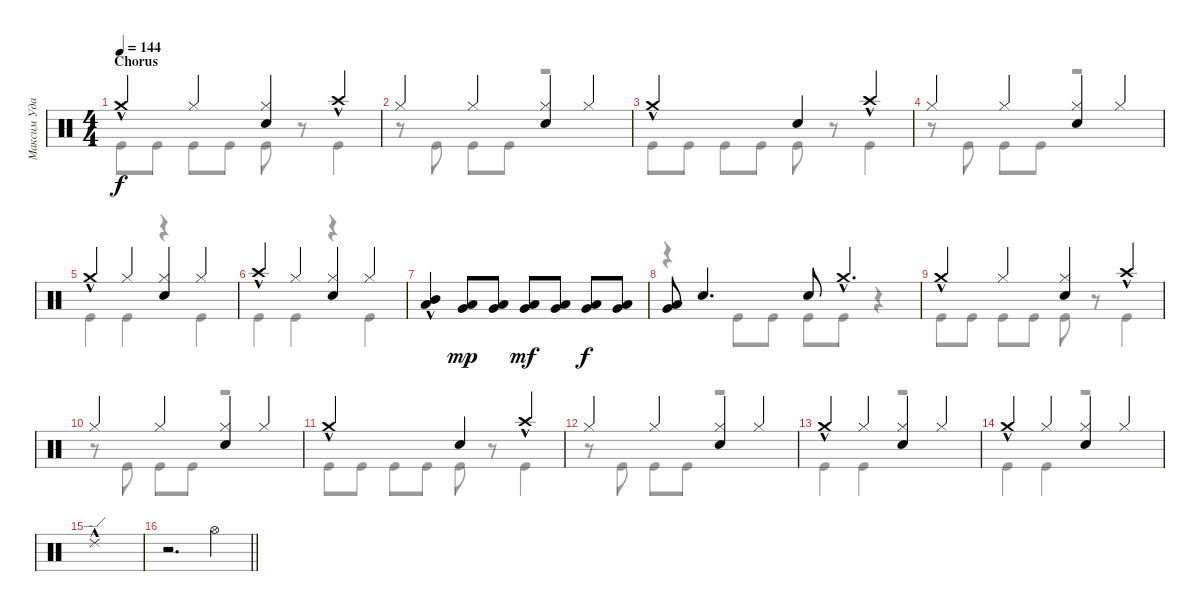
\track ("Максим Удалов" "Максим Уда") {instrument percussion}
\staff {score}
\articulation defaults
\voice
\ts (4 4)
\section ("" "Chorus")
\tempo 144
\clef neutral
\ks c "Crash medium (hit)"{hac}.4{dy f} "Hi-Hat (closed)".4
("Snare (hit) 2" "Hi-Hat (closed)").4 "Crash high (hit)"{hac}.4 |
"Hi-Hat (closed)".4 "Hi-Hat (closed)".4 ("Hi-Hat (closed)" "Snare (hit) 2").4 "Hi-Hat (closed)".4 |
"Crash medium (hit)"{hac}.2 "Snare (hit) 2".4 "Crash high (hit)"{hac}.4 |
"Hi-Hat (closed)".4 "Hi-Hat (closed)".4 ("Hi-Hat (closed)" "Snare (hit) 2").4 "Hi-Hat (closed)".4 |
"Crash medium (hit)"{hac}.4 "Hi-Hat (closed)".4 ("Hi-Hat (closed)" "Snare (hit) 2").4 "Hi-Hat (closed)".4 |
"Crash high (hit)"{hac}.4 "Hi-Hat (closed)".4 ("Hi-Hat (closed)" "Snare (hit) 2").4 "Hi-Hat (closed)".4 |
("Low Tom (hit)"{hac} "Mid Tom (hit)"{hac}).4 ("Low Tom (hit)" "Very Low Tom (hit)").8{dy mp} ("Low Tom (hit)" "Very Low Tom (hit)").8 ("Low Tom (hit)" "Very Low Tom (hit)").8{dy mf} ("Low Tom (hit)" "Very Low Tom (hit)").8 ("Low Tom (hit)" "Very Low Tom (hit)").8{dy f} ("Low Tom (hit)" "Very Low Tom (hit)").8 |
("Low Tom (hit)" "Very Low Tom (hit)").8 "Snare (hit) 2".4{d} "Snare (hit) 2".8 "Crash medium (hit)"{hac}.4{d} |
"Crash medium (hit)"{hac}.4 "Hi-Hat (closed)".4 ("Snare (hit) 2" "Hi-Hat (closed)").4 "Crash high (hit)"{hac}.4 |
"Hi-Hat (closed)".4 "Hi-Hat (closed)".4 ("Hi-Hat (closed)" "Snare (hit) 2").4 "Hi-Hat (closed)".4 |
"Crash medium (hit)"{hac}.2 "Snare (hit) 2".4 "Crash high (hit)"{hac}.4 |
"Hi-Hat (closed)".4 "Hi-Hat (closed)".4 ("Hi-Hat (closed)" "Snare (hit) 2").4 "Hi-Hat (closed)".4 |
"Crash medium (hit)"{hac}.4 "Hi-Hat (closed)".4 ("Hi-Hat (closed)" "Snare (hit) 2").4 "Hi-Hat (closed)".4 |
"Crash medium (hit)"{hac}.4 "Hi-Hat (closed)".4 ("Hi-Hat (closed)" "Snare (hit) 2").4 "Hi-Hat (closed)".4 |
"Ride (edge) 2"{hac}.1 |
\barLineRight lightlight
r.2{d} "Hi-Hat (open)".4
\voice
\clef neutral
\ottava regular
\simile none
\ks c "Kick (hit)".8{dy f} "Kick (hit)".8 "Kick (hit)".8 "Kick (hit)".8 "Kick (hit)".8
r.8 "Kick (hit)".4 |
r.8 "Kick (hit)".8 "Kick (hit)".8 "Kick (hit)".8 r.2 |
"Kick (hit)".8 "Kick (hit)".8 "Kick (hit)".8 "Kick (hit)".8 "Kick (hit)".8 r.8 "Kick (hit)".4 |
r.8 "Kick (hit)".8 "Kick (hit)".8 "Kick (hit)".8 r.2 |
"Kick (hit)".4 "Kick (hit)".4 r.4 "Kick (hit)".4 |
"Kick (hit)".4 "Kick (hit)".4 r.4 "Kick (hit)".4 |
|
r.4 "Kick (hit)".8 "Kick (hit)".8 "Kick (hit)".8 "Kick (hit)".8 r.4 |
"Kick (hit)".8 "Kick (hit)".8 "Kick (hit)".8 "Kick (hit)".8 "Kick (hit)".8 r.8 "Kick (hit)".4 |
r.8 "Kick (hit)".8 "Kick (hit)".8 "Kick (hit)".8 r.2 |
"Kick (hit)".8 "Kick (hit)".8 "Kick (hit)".8 "Kick (hit)".8 "Kick (hit)".8 r.8 "Kick (hit)".4 |
r.8 "Kick (hit)".8 "Kick (hit)".8 "Kick (hit)".8 r.2 |
"Kick (hit)".4 "Kick (hit)".4 r.2 |
"Kick (hit)".4 "Kick (hit)".4 r.2 |
|
\barLineRight lightlight
